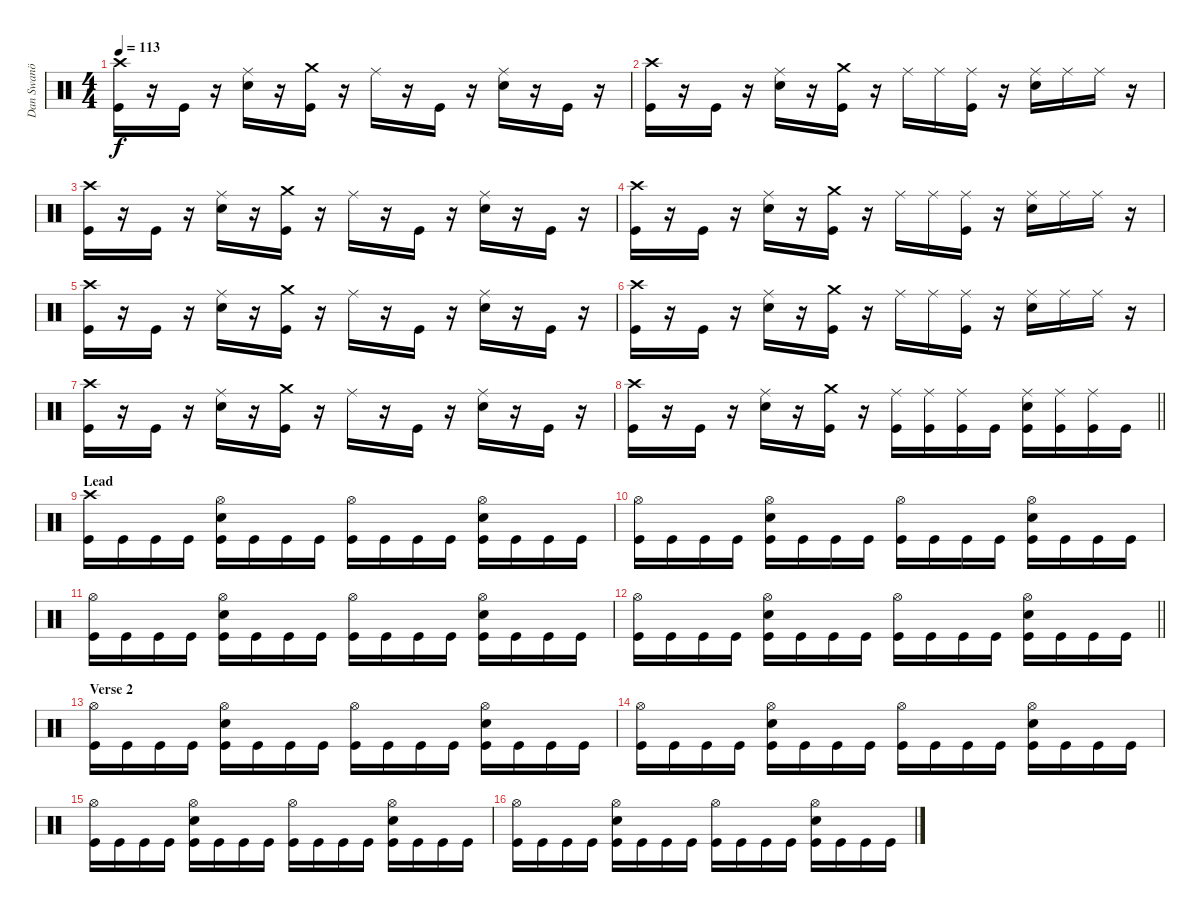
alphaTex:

\track ("Dan Swanö" "Dan Swanö") {instrument percussion}
\staff {score}
\articulation defaults
\ts (4 4)
\tempo 113
\clef neutral
\ks c
("Crash high (hit)" "Kick (hit)").16{dy f} r.16 "Kick (hit)".16 r.16 ("Ride (middle)" "Snare (hit) 2").16 r.16 ("Crash medium (hit)" "Kick (hit)").16 r.16 "Ride (middle)".16 r.16 "Kick (hit)".16 r.16 ("Ride (middle)" "Snare (hit) 2").16 r.16 "Kick (hit)".16 r.16 |
("Crash high (hit)" "Kick (hit)").16 r.16 "Kick (hit)".16 r.16 ("Ride (middle)" "Snare (hit) 2").16 r.16 ("Crash medium (hit)" "Kick (hit)").16 r.16 "Ride (middle)".16 "Ride (middle)".16 ("Ride (middle)" "Kick (hit)").16 r.16 ("Ride (middle)" "Snare (hit) 2").16 "Ride (middle)".16 "Ride (middle)".16 r.16 |
("Crash high (hit)" "Kick (hit)").16 r.16 "Kick (hit)".16 r.16 ("Ride (middle)" "Snare (hit) 2").16 r.16 ("Crash medium (hit)" "Kick (hit)").16 r.16 "Ride (middle)".16 r.16 "Kick (hit)".16 r.16 ("Ride (middle)" "Snare (hit) 2").16 r.16 "Kick (hit)".16 r.16 |
("Crash high (hit)" "Kick (hit)").16 r.16 "Kick (hit)".16 r.16 ("Ride (middle)" "Snare (hit) 2").16 r.16 ("Crash medium (hit)" "Kick (hit)").16 r.16 "Ride (middle)".16 "Ride (middle)".16 ("Ride (middle)" "Kick (hit)").16 r.16 ("Ride (middle)" "Snare (hit) 2").16 "Ride (middle)".16 "Ride (middle)".16 r.16 |
("Crash high (hit)" "Kick (hit)").16 r.16 "Kick (hit)".16 r.16 ("Ride (middle)" "Snare (hit) 2").16 r.16 ("Crash medium (hit)" "Kick (hit)").16 r.16 "Ride (middle)".16 r.16 "Kick (hit)".16 r.16 ("Ride (middle)" "Snare (hit) 2").16 r.16 "Kick (hit)".16 r.16 |
("Crash high (hit)" "Kick (hit)").16 r.16 "Kick (hit)".16 r.16 ("Ride (middle)" "Snare (hit) 2").16 r.16 ("Crash medium (hit)" "Kick (hit)").16 r.16 "Ride (middle)".16 "Ride (middle)".16 ("Ride (middle)" "Kick (hit)").16 r.16 ("Ride (middle)" "Snare (hit) 2").16 "Ride (middle)".16 "Ride (middle)".16 r.16 |
("Crash high (hit)" "Kick (hit)").16 r.16 "Kick (hit)".16 r.16 ("Ride (middle)" "Snare (hit) 2").16 r.16 ("Crash medium (hit)" "Kick (hit)").16 r.16 "Ride (middle)".16 r.16 "Kick (hit)".16 r.16 ("Ride (middle)" "Snare (hit) 2").16 r.16 "Kick (hit)".16 r.16 |
\barLineRight lightlight
("Crash high (hit)" "Kick (hit)").16 r.16 "Kick (hit)".16 r.16 ("Ride (middle)" "Snare (hit) 2").16 r.16 ("Crash medium (hit)" "Kick (hit)").16 r.16 ("Ride (middle)" "Kick (hit)").16 ("Ride (middle)" "Kick (hit)").16 ("Ride (middle)" "Kick (hit)").16 "Kick (hit)".16 ("Ride (middle)" "Snare (hit) 2" "Kick (hit)").16 ("Ride (middle)" "Kick (hit)").16 ("Ride (middle)" "Kick (hit)").16 "Kick (hit)".16 |
\section ("" "Lead")
("Crash high (hit)" "Kick (hit)").16 "Kick (hit)".16 "Kick (hit)".16 "Kick (hit)".16 ("Hi-Hat (open)" "Snare (hit) 2" "Kick (hit)").16 "Kick (hit)".16 "Kick (hit)".16 "Kick (hit)".16 ("Hi-Hat (open)" "Kick (hit)").16 "Kick (hit)".16 "Kick (hit)".16 "Kick (hit)".16 ("Hi-Hat (open)" "Snare (hit) 2" "Kick (hit)").16 "Kick (hit)".16 "Kick (hit)".16 "Kick (hit)".16 |
("Hi-Hat (open)" "Kick (hit)").16 "Kick (hit)".16 "Kick (hit)".16 "Kick (hit)".16 ("Hi-Hat (open)" "Snare (hit) 2" "Kick (hit)").16 "Kick (hit)".16 "Kick (hit)".16 "Kick (hit)".16 ("Hi-Hat (open)" "Kick (hit)").16 "Kick (hit)".16 "Kick (hit)".16 "Kick (hit)".16 ("Hi-Hat (open)" "Snare (hit) 2" "Kick (hit)").16 "Kick (hit)".16 "Kick (hit)".16 "Kick (hit)".16 |
("Hi-Hat (open)" "Kick (hit)").16 "Kick (hit)".16 "Kick (hit)".16 "Kick (hit)".16 ("Hi-Hat (open)" "Snare (hit) 2" "Kick (hit)").16 "Kick (hit)".16 "Kick (hit)".16 "Kick (hit)".16 ("Hi-Hat (open)" "Kick (hit)").16 "Kick (hit)".16 "Kick (hit)".16 "Kick (hit)".16 ("Hi-Hat (open)" "Snare (hit) 2" "Kick (hit)").16 "Kick (hit)".16 "Kick (hit)".16 "Kick (hit)".16 |
\barLineRight lightlight
("Hi-Hat (open)" "Kick (hit)").16 "Kick (hit)".16 "Kick (hit)".16 "Kick (hit)".16 ("Hi-Hat (open)" "Snare (hit) 2" "Kick (hit)").16 "Kick (hit)".16 "Kick (hit)".16 "Kick (hit)".16 ("Hi-Hat (open)" "Kick (hit)").16 "Kick (hit)".16 "Kick (hit)".16 "Kick (hit)".16 ("Hi-Hat (open)" "Snare (hit) 2" "Kick (hit)").16 "Kick (hit)".16 "Kick (hit)".16 "Kick (hit)".16 |
\section ("" "Verse 2")
("Hi-Hat (open)" "Kick (hit)").16 "Kick (hit)".16 "Kick (hit)".16 "Kick (hit)".16 ("Hi-Hat (open)" "Snare (hit) 2" "Kick (hit)").16 "Kick (hit)".16 "Kick (hit)".16 "Kick (hit)".16 ("Hi-Hat (open)" "Kick (hit)").16 "Kick (hit)".16 "Kick (hit)".16 "Kick (hit)".16 ("Hi-Hat (open)" "Snare (hit) 2" "Kick (hit)").16 "Kick (hit)".16 "Kick (hit)".16 "Kick (hit)".16 |
("Hi-Hat (open)" "Kick (hit)").16 "Kick (hit)".16 "Kick (hit)".16 "Kick (hit)".16 ("Hi-Hat (open)" "Snare (hit) 2" "Kick (hit)").16 "Kick (hit)".16 "Kick (hit)".16 "Kick (hit)".16 ("Hi-Hat (open)" "Kick (hit)").16 "Kick (hit)".16 "Kick (hit)".16 "Kick (hit)".16 ("Hi-Hat (open)" "Snare (hit) 2" "Kick (hit)").16 "Kick (hit)".16 "Kick (hit)".16 "Kick (hit)".16 |
("Hi-Hat (open)" "Kick (hit)").16 "Kick (hit)".16 "Kick (hit)".16 "Kick (hit)".16 ("Hi-Hat (open)" "Snare (hit) 2" "Kick (hit)").16 "Kick (hit)".16 "Kick (hit)".16 "Kick (hit)".16 ("Hi-Hat (open)" "Kick (hit)").16 "Kick (hit)".16 "Kick (hit)".16 "Kick (hit)".16 ("Hi-Hat (open)" "Snare (hit) 2" "Kick (hit)").16 "Kick (hit)".16 "Kick (hit)".16 "Kick (hit)".16 |
("Hi-Hat (open)" "Kick (hit)").16 "Kick (hit)".16 "Kick (hit)".16 "Kick (hit)".16 ("Hi-Hat (open)" "Snare (hit) 2" "Kick (hit)").16 "Kick (hit)".16 "Kick (hit)".16 "Kick (hit)".16 ("Hi-Hat (open)" "Kick (hit)").16 "Kick (hit)".16 "Kick (hit)".16 "Kick (hit)".16 ("Hi-Hat (open)" "Snare (hit) 2" "Kick (hit)").16 "Kick (hit)".16 "Kick (hit)".16 "Kick (hit)".16
